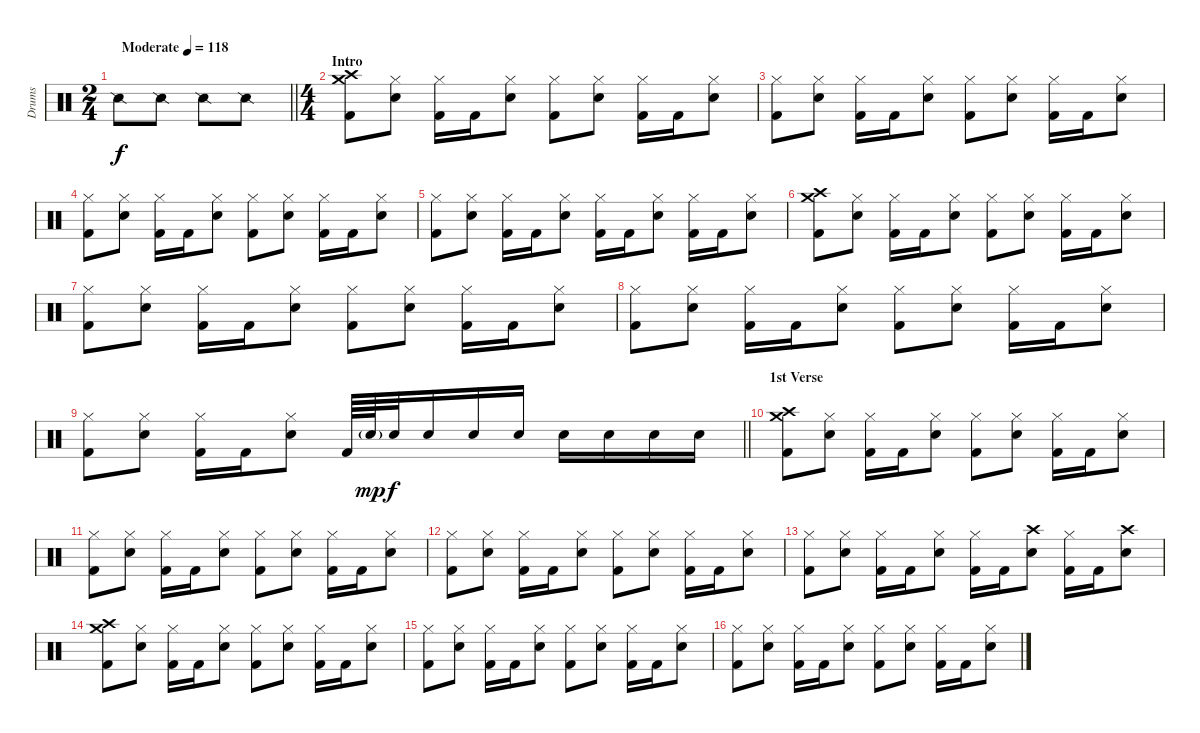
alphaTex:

\track ("Drums" "Drums") {instrument percussion}
\staff {score}
\articulation defaults
\ts (2 4)
\tempo (118 "Moderate")
\clef neutral
\barLineRight lightlight
\ks c "Snare (side stick) 2".8{dy f} "Snare (side stick) 2".8 "Snare (side stick) 2".8 "Snare (side stick) 2".8
|
\ts (4 4)
\section ("" "Intro")
("Crash medium (hit)" "Crash high (hit)" "Kick (hit) 2").8 ("Hi-Hat (closed)" "Electric Snare (hit)").8 ("Hi-Hat (closed)" "Kick (hit) 2").16 "Kick (hit) 2".16 ("Hi-Hat (closed)" "Electric Snare (hit)").8 ("Hi-Hat (closed)" "Kick (hit) 2").8 ("Hi-Hat (closed)" "Electric Snare (hit)").8 ("Hi-Hat (closed)" "Kick (hit) 2").16 "Kick (hit) 2".16 ("Hi-Hat (closed)" "Electric Snare (hit)").8 |
("Hi-Hat (closed)" "Kick (hit) 2").8 ("Hi-Hat (closed)" "Electric Snare (hit)").8 ("Hi-Hat (closed)" "Kick (hit) 2").16 "Kick (hit) 2".16 ("Hi-Hat (closed)" "Electric Snare (hit)").8 ("Hi-Hat (closed)" "Kick (hit) 2").8 ("Hi-Hat (closed)" "Electric Snare (hit)").8 ("Hi-Hat (closed)" "Kick (hit) 2").16 "Kick (hit) 2".16 ("Hi-Hat (closed)" "Electric Snare (hit)").8 |
("Hi-Hat (closed)" "Kick (hit) 2").8 ("Hi-Hat (closed)" "Electric Snare (hit)").8 ("Hi-Hat (closed)" "Kick (hit) 2").16 "Kick (hit) 2".16 ("Hi-Hat (closed)" "Electric Snare (hit)").8 ("Hi-Hat (closed)" "Kick (hit) 2").8 ("Hi-Hat (closed)" "Electric Snare (hit)").8 ("Hi-Hat (closed)" "Kick (hit) 2").16 "Kick (hit) 2".16 ("Hi-Hat (closed)" "Electric Snare (hit)").8 |
("Hi-Hat (closed)" "Kick (hit) 2").8 ("Hi-Hat (closed)" "Electric Snare (hit)").8 ("Hi-Hat (closed)" "Kick (hit) 2").16 "Kick (hit) 2".16 ("Hi-Hat (closed)" "Electric Snare (hit)").8 ("Hi-Hat (closed)" "Kick (hit) 2").16 "Kick (hit) 2".16 ("Hi-Hat (closed)" "Electric Snare (hit)").8 ("Hi-Hat (closed)" "Kick (hit) 2").16 "Kick (hit) 2".16 ("Hi-Hat (closed)" "Electric Snare (hit)").8 |
("Crash medium (hit)" "Crash high (hit)" "Kick (hit) 2").8 ("Hi-Hat (closed)" "Electric Snare (hit)").8 ("Hi-Hat (closed)" "Kick (hit) 2").16 "Kick (hit) 2".16 ("Hi-Hat (closed)" "Electric Snare (hit)").8 ("Hi-Hat (closed)" "Kick (hit) 2").8 ("Hi-Hat (closed)" "Electric Snare (hit)").8 ("Hi-Hat (closed)" "Kick (hit) 2").16 "Kick (hit) 2".16 ("Hi-Hat (closed)" "Electric Snare (hit)").8 |
("Hi-Hat (closed)" "Kick (hit) 2").8 ("Hi-Hat (closed)" "Electric Snare (hit)").8 ("Hi-Hat (closed)" "Kick (hit) 2").16 "Kick (hit) 2".16 ("Hi-Hat (closed)" "Electric Snare (hit)").8 ("Hi-Hat (closed)" "Kick (hit) 2").8 ("Hi-Hat (closed)" "Electric Snare (hit)").8 ("Hi-Hat (closed)" "Kick (hit) 2").16 "Kick (hit) 2".16 ("Hi-Hat (closed)" "Electric Snare (hit)").8 |
("Hi-Hat (closed)" "Kick (hit) 2").8 ("Hi-Hat (closed)" "Electric Snare (hit)").8 ("Hi-Hat (closed)" "Kick (hit) 2").16 "Kick (hit) 2".16 ("Hi-Hat (closed)" "Electric Snare (hit)").8 ("Hi-Hat (closed)" "Kick (hit) 2").8 ("Hi-Hat (closed)" "Electric Snare (hit)").8 ("Hi-Hat (closed)" "Kick (hit) 2").16 "Kick (hit) 2".16 ("Hi-Hat (closed)" "Electric Snare (hit)").8 |
\barLineRight lightlight
("Hi-Hat (closed)" "Kick (hit) 2").8 ("Hi-Hat (closed)" "Electric Snare (hit)").8 ("Hi-Hat (closed)" "Kick (hit) 2").16 "Kick (hit) 2".16 ("Hi-Hat (closed)" "Electric Snare (hit)").8 "Kick (hit) 2".64 "Electric Snare (hit)"{g}.64{dy mp} "Electric Snare (hit)".32{dy f} "Electric Snare (hit)".16 "Electric Snare (hit)".16 "Electric Snare (hit)".16 "Electric Snare (hit)".16 "Electric Snare (hit)".16 "Electric Snare (hit)".16 "Electric Snare (hit)".16 |
\section ("" "1st Verse")
("Crash medium (hit)" "Crash high (hit)" "Kick (hit) 2").8 ("Hi-Hat (closed)" "Electric Snare (hit)").8 ("Hi-Hat (closed)" "Kick (hit) 2").16 "Kick (hit) 2".16 ("Hi-Hat (closed)" "Electric Snare (hit)").8 ("Hi-Hat (closed)" "Kick (hit) 2").8 ("Hi-Hat (closed)" "Electric Snare (hit)").8 ("Hi-Hat (closed)" "Kick (hit) 2").16 "Kick (hit) 2".16 ("Hi-Hat (closed)" "Electric Snare (hit)").8 |
("Hi-Hat (closed)" "Kick (hit) 2").8 ("Hi-Hat (closed)" "Electric Snare (hit)").8 ("Hi-Hat (closed)" "Kick (hit) 2").16 "Kick (hit) 2".16 ("Hi-Hat (closed)" "Electric Snare (hit)").8 ("Hi-Hat (closed)" "Kick (hit) 2").8 ("Hi-Hat (closed)" "Electric Snare (hit)").8 ("Hi-Hat (closed)" "Kick (hit) 2").16 "Kick (hit) 2".16 ("Hi-Hat (closed)" "Electric Snare (hit)").8 |
("Hi-Hat (closed)" "Kick (hit) 2").8 ("Hi-Hat (closed)" "Electric Snare (hit)").8 ("Hi-Hat (closed)" "Kick (hit) 2").16 "Kick (hit) 2".16 ("Hi-Hat (closed)" "Electric Snare (hit)").8 ("Hi-Hat (closed)" "Kick (hit) 2").8 ("Hi-Hat (closed)" "Electric Snare (hit)").8 ("Hi-Hat (closed)" "Kick (hit) 2").16 "Kick (hit) 2".16 ("Hi-Hat (closed)" "Electric Snare (hit)").8 |
("Hi-Hat (closed)" "Kick (hit) 2").8 ("Hi-Hat (closed)" "Electric Snare (hit)").8 ("Hi-Hat (closed)" "Kick (hit) 2").16 "Kick (hit) 2".16 ("Hi-Hat (closed)" "Electric Snare (hit)").8 ("Hi-Hat (closed)" "Kick (hit) 2").16 "Kick (hit) 2".16 ("Crash high (hit)" "Electric Snare (hit)").8 ("Hi-Hat (closed)" "Kick (hit) 2").16 "Kick (hit) 2".16 ("Crash high (hit)" "Electric Snare (hit)").8 |
("Crash medium (hit)" "Crash high (hit)" "Kick (hit) 2").8 ("Hi-Hat (closed)" "Electric Snare (hit)").8 ("Hi-Hat (closed)" "Kick (hit) 2").16 "Kick (hit) 2".16 ("Hi-Hat (closed)" "Electric Snare (hit)").8 ("Hi-Hat (closed)" "Kick (hit) 2").8 ("Hi-Hat (closed)" "Electric Snare (hit)").8 ("Hi-Hat (closed)" "Kick (hit) 2").16 "Kick (hit) 2".16 ("Hi-Hat (closed)" "Electric Snare (hit)").8 |
("Hi-Hat (closed)" "Kick (hit) 2").8 ("Hi-Hat (closed)" "Electric Snare (hit)").8 ("Hi-Hat (closed)" "Kick (hit) 2").16 "Kick (hit) 2".16 ("Hi-Hat (closed)" "Electric Snare (hit)").8 ("Hi-Hat (closed)" "Kick (hit) 2").8 ("Hi-Hat (closed)" "Electric Snare (hit)").8 ("Hi-Hat (closed)" "Kick (hit) 2").16 "Kick (hit) 2".16 ("Hi-Hat (closed)" "Electric Snare (hit)").8 |
("Hi-Hat (closed)" "Kick (hit) 2").8 ("Hi-Hat (closed)" "Electric Snare (hit)").8 ("Hi-Hat (closed)" "Kick (hit) 2").16 "Kick (hit) 2".16 ("Hi-Hat (closed)" "Electric Snare (hit)").8 ("Hi-Hat (closed)" "Kick (hit) 2").8 ("Hi-Hat (closed)" "Electric Snare (hit)").8 ("Hi-Hat (closed)" "Kick (hit) 2").16 "Kick (hit) 2".16 ("Hi-Hat (closed)" "Electric Snare (hit)").8
